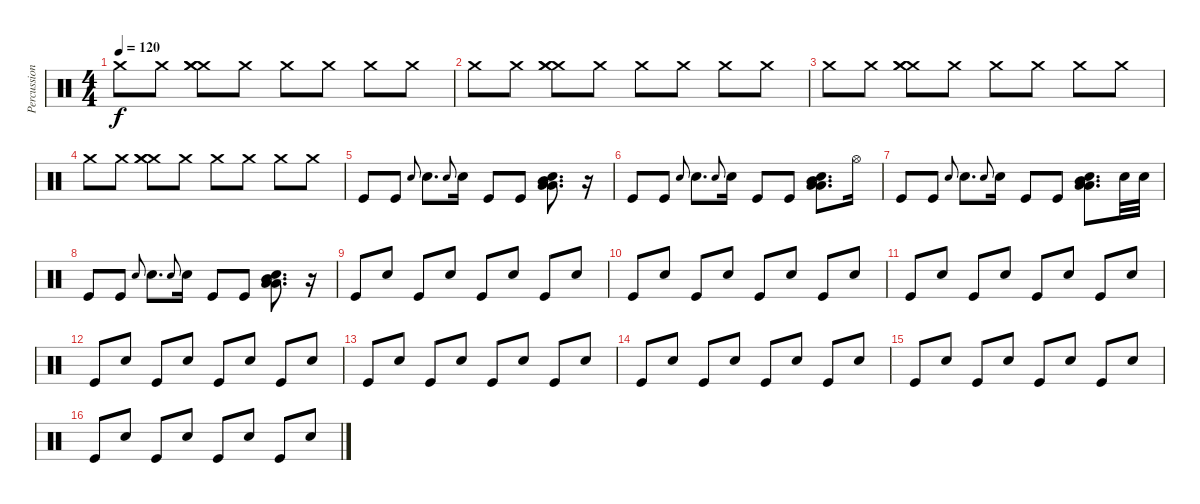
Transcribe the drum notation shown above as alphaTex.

\track ("Percussion" "Percussion") {instrument percussion}
\staff {score}
\articulation defaults
\ts (4 4)
\tempo 120
\clef neutral
\ks c "Crash medium (hit)".8{dy f} "Crash medium (hit)".8
("Crash medium (hit)" "Crash medium (hit)" "Crash medium (hit)").8 "Crash medium (hit)".8 "Crash medium (hit)".8 "Crash medium (hit)".8 "Crash medium (hit)".8 "Crash medium (hit)".8 |
"Crash medium (hit)".8 "Crash medium (hit)".8 ("Crash medium (hit)" "Crash medium (hit)" "Crash medium (hit)").8 "Crash medium (hit)".8 "Crash medium (hit)".8 "Crash medium (hit)".8 "Crash medium (hit)".8 "Crash medium (hit)".8 |
"Crash medium (hit)".8 "Crash medium (hit)".8 ("Crash medium (hit)" "Crash medium (hit)" "Crash medium (hit)").8 "Crash medium (hit)".8 "Crash medium (hit)".8 "Crash medium (hit)".8 "Crash medium (hit)".8 "Crash medium (hit)".8 |
"Crash medium (hit)".8 "Crash medium (hit)".8 ("Crash medium (hit)" "Crash medium (hit)" "Crash medium (hit)").8 "Crash medium (hit)".8 "Crash medium (hit)".8 "Crash medium (hit)".8 "Crash medium (hit)".8 "Crash medium (hit)".8 |
"Kick (hit)".8 "Kick (hit)".8 "Snare (hit) 2".8{gr onbeat} "Snare (hit) 2".8{d} "Snare (hit) 2".8{gr onbeat} "Snare (hit) 2".16 "Kick (hit)".8 "Kick (hit)".8 ("Snare (hit) 2" "Low Floor Tom (hit)" "Low Tom (hit)" "Mid Tom (hit)").8{d} r.16 |
"Kick (hit)".8 "Kick (hit)".8 "Snare (hit) 2".8{gr onbeat} "Snare (hit) 2".8{d} "Snare (hit) 2".8{gr onbeat} "Snare (hit) 2".16 "Kick (hit)".8 "Kick (hit)".8 ("Snare (hit) 2" "Low Floor Tom (hit)" "Low Tom (hit)" "Mid Tom (hit)").8{d} "Hi-Hat (open)".16 |
"Kick (hit)".8 "Kick (hit)".8 "Snare (hit) 2".8{gr onbeat} "Snare (hit) 2".8{d} "Snare (hit) 2".8{gr onbeat} "Snare (hit) 2".16 "Kick (hit)".8 "Kick (hit)".8 ("Snare (hit) 2" "Low Floor Tom (hit)" "Low Tom (hit)" "Mid Tom (hit)").8{d} "Snare (hit) 2".32 "Snare (hit) 2".32 |
"Kick (hit)".8 "Kick (hit)".8 "Snare (hit) 2".8{gr onbeat} "Snare (hit) 2".8{d} "Snare (hit) 2".8{gr onbeat} "Snare (hit) 2".16 "Kick (hit)".8 "Kick (hit)".8 ("Snare (hit) 2" "Low Floor Tom (hit)" "Low Tom (hit)" "Mid Tom (hit)").8{d} r.16 |
"Kick (hit)".8 "Snare (hit) 2".8 "Kick (hit)".8 "Snare (hit) 2".8 "Kick (hit)".8 "Snare (hit) 2".8 "Kick (hit)".8 "Snare (hit) 2".8 |
"Kick (hit)".8 "Snare (hit) 2".8 "Kick (hit)".8 "Snare (hit) 2".8 "Kick (hit)".8 "Snare (hit) 2".8 "Kick (hit)".8 "Snare (hit) 2".8 |
"Kick (hit)".8 "Snare (hit) 2".8 "Kick (hit)".8 "Snare (hit) 2".8 "Kick (hit)".8 "Snare (hit) 2".8 "Kick (hit)".8 "Snare (hit) 2".8 |
"Kick (hit)".8 "Snare (hit) 2".8 "Kick (hit)".8 "Snare (hit) 2".8 "Kick (hit)".8 "Snare (hit) 2".8 "Kick (hit)".8 "Snare (hit) 2".8 |
"Kick (hit)".8 "Snare (hit) 2".8 "Kick (hit)".8 "Snare (hit) 2".8 "Kick (hit)".8 "Snare (hit) 2".8 "Kick (hit)".8 "Snare (hit) 2".8 |
"Kick (hit)".8 "Snare (hit) 2".8 "Kick (hit)".8 "Snare (hit) 2".8 "Kick (hit)".8 "Snare (hit) 2".8 "Kick (hit)".8 "Snare (hit) 2".8 |
"Kick (hit)".8 "Snare (hit) 2".8 "Kick (hit)".8 "Snare (hit) 2".8 "Kick (hit)".8 "Snare (hit) 2".8 "Kick (hit)".8 "Snare (hit) 2".8 |
"Kick (hit)".8 "Snare (hit) 2".8 "Kick (hit)".8 "Snare (hit) 2".8 "Kick (hit)".8 "Snare (hit) 2".8 "Kick (hit)".8 "Snare (hit) 2".8
